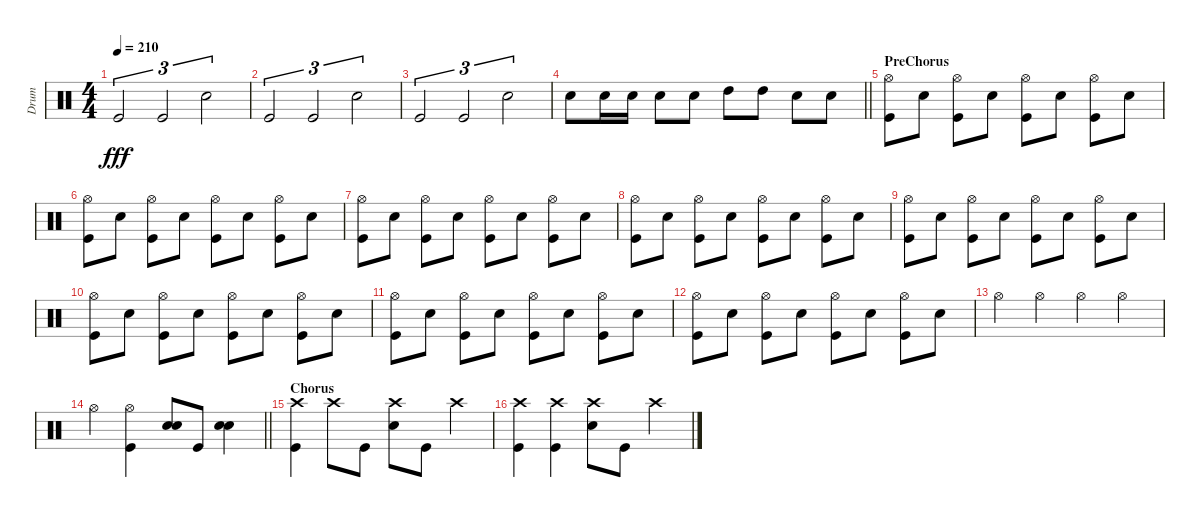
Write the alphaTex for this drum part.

\track ("Drum" "Drum") {instrument percussion}
\staff
\articulation defaults
\ts (4 4)
\tempo 210
\clef neutral
\ks c "Kick (hit)".2{tu (3 2) dy fff} "Kick (hit)".2{tu (3 2)} "Snare (hit) 2".2{tu (3 2)}
|
"Kick (hit)".2{tu (3 2)} "Kick (hit)".2{tu (3 2)} "Snare (hit) 2".2{tu (3 2)} |
"Kick (hit)".2{tu (3 2)} "Kick (hit)".2{tu (3 2)} "Snare (hit) 2".2{tu (3 2)} |
\barLineRight lightlight "Snare (hit) 2".8 "Snare (hit) 2".16 "Snare (hit) 2".16 "Snare (hit) 2".8 "Snare (hit) 2".8 "High Tom (hit)".8 "High Tom (hit)".8 "Snare (hit) 2".8 "Snare (hit) 2".8
|
\section ("" "PreChorus")
("Hi-Hat (open)" "Kick (hit)").8 "Snare (hit) 2".8 ("Hi-Hat (open)" "Kick (hit)").8 "Snare (hit) 2".8 ("Hi-Hat (open)" "Kick (hit)").8 "Snare (hit) 2".8 ("Hi-Hat (open)" "Kick (hit)").8 "Snare (hit) 2".8 |
("Hi-Hat (open)" "Kick (hit)").8 "Snare (hit) 2".8 ("Hi-Hat (open)" "Kick (hit)").8 "Snare (hit) 2".8 ("Hi-Hat (open)" "Kick (hit)").8 "Snare (hit) 2".8 ("Hi-Hat (open)" "Kick (hit)").8 "Snare (hit) 2".8 |
("Hi-Hat (open)" "Kick (hit)").8 "Snare (hit) 2".8 ("Hi-Hat (open)" "Kick (hit)").8 "Snare (hit) 2".8 ("Hi-Hat (open)" "Kick (hit)").8 "Snare (hit) 2".8 ("Hi-Hat (open)" "Kick (hit)").8 "Snare (hit) 2".8 |
("Hi-Hat (open)" "Kick (hit)").8 "Snare (hit) 2".8 ("Hi-Hat (open)" "Kick (hit)").8 "Snare (hit) 2".8 ("Hi-Hat (open)" "Kick (hit)").8 "Snare (hit) 2".8 ("Hi-Hat (open)" "Kick (hit)").8 "Snare (hit) 2".8 |
("Hi-Hat (open)" "Kick (hit)").8 "Snare (hit) 2".8 ("Hi-Hat (open)" "Kick (hit)").8 "Snare (hit) 2".8 ("Hi-Hat (open)" "Kick (hit)").8 "Snare (hit) 2".8 ("Hi-Hat (open)" "Kick (hit)").8 "Snare (hit) 2".8 |
("Hi-Hat (open)" "Kick (hit)").8 "Snare (hit) 2".8 ("Hi-Hat (open)" "Kick (hit)").8 "Snare (hit) 2".8 ("Hi-Hat (open)" "Kick (hit)").8 "Snare (hit) 2".8 ("Hi-Hat (open)" "Kick (hit)").8 "Snare (hit) 2".8 |
("Hi-Hat (open)" "Kick (hit)").8 "Snare (hit) 2".8 ("Hi-Hat (open)" "Kick (hit)").8 "Snare (hit) 2".8 ("Hi-Hat (open)" "Kick (hit)").8 "Snare (hit) 2".8 ("Hi-Hat (open)" "Kick (hit)").8 "Snare (hit) 2".8 |
("Hi-Hat (open)" "Kick (hit)").8 "Snare (hit) 2".8 ("Hi-Hat (open)" "Kick (hit)").8 "Snare (hit) 2".8 ("Hi-Hat (open)" "Kick (hit)").8 "Snare (hit) 2".8 ("Hi-Hat (open)" "Kick (hit)").8 "Snare (hit) 2".8 |
"Hi-Hat (open)".4 "Hi-Hat (open)".4 "Hi-Hat (open)".4 "Hi-Hat (open)".4 |
\barLineRight lightlight "Hi-Hat (open)".4
("Hi-Hat (open)" "Kick (hit)").4 ("Snare (hit) 2" "Snare (hit) 2").8 "Kick (hit)".8 ("Snare (hit) 2" "Snare (hit) 2").4 |
\section ("" "Chorus")
("Crash high (hit)" "Kick (hit)").4 "Crash high (hit)".8 "Kick (hit)".8 ("Crash high (hit)" "Snare (hit) 2").8 "Kick (hit)".8 "Crash high (hit)".4 |
("Crash high (hit)" "Kick (hit)").4 ("Crash high (hit)" "Kick (hit)").4 ("Crash high (hit)" "Snare (hit) 2").8 "Kick (hit)".8 "Crash high (hit)".4
